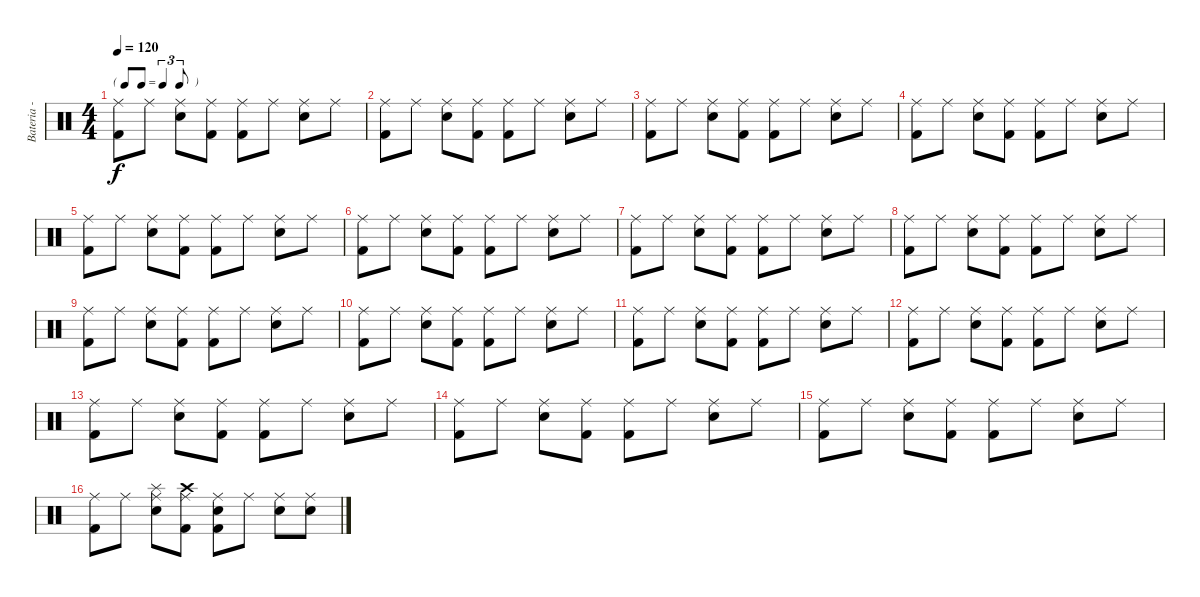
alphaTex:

\track ("Bateria - Cris Layton" "Bateria - ") {instrument percussion}
\staff {score}
\articulation defaults
\ts (4 4)
\tf triplet8th
\tempo 120
\clef neutral
\ks c
("Ride (middle)" "Kick (hit) 2").8{dy f} "Ride (middle)".8 ("Ride (middle)" "Electric Snare (hit)").8 ("Ride (middle)" "Kick (hit) 2").8 ("Ride (middle)" "Kick (hit) 2").8 "Ride (middle)".8 ("Ride (middle)" "Electric Snare (hit)").8 "Ride (middle)".8 |
("Ride (middle)" "Kick (hit) 2").8 "Ride (middle)".8 ("Ride (middle)" "Electric Snare (hit)").8 ("Ride (middle)" "Kick (hit) 2").8 ("Ride (middle)" "Kick (hit) 2").8 "Ride (middle)".8 ("Ride (middle)" "Electric Snare (hit)").8 "Ride (middle)".8 |
("Ride (middle)" "Kick (hit) 2").8 "Ride (middle)".8 ("Ride (middle)" "Electric Snare (hit)").8 ("Ride (middle)" "Kick (hit) 2").8 ("Ride (middle)" "Kick (hit) 2").8 "Ride (middle)".8 ("Ride (middle)" "Electric Snare (hit)").8 "Ride (middle)".8 |
("Ride (middle)" "Kick (hit) 2").8 "Ride (middle)".8 ("Ride (middle)" "Electric Snare (hit)").8 ("Ride (middle)" "Kick (hit) 2").8 ("Ride (middle)" "Kick (hit) 2").8 "Ride (middle)".8 ("Ride (middle)" "Electric Snare (hit)").8 "Ride (middle)".8 |
("Ride (middle)" "Kick (hit) 2").8 "Ride (middle)".8 ("Ride (middle)" "Electric Snare (hit)").8 ("Ride (middle)" "Kick (hit) 2").8 ("Ride (middle)" "Kick (hit) 2").8 "Ride (middle)".8 ("Ride (middle)" "Electric Snare (hit)").8 "Ride (middle)".8 |
("Ride (middle)" "Kick (hit) 2").8 "Ride (middle)".8 ("Ride (middle)" "Electric Snare (hit)").8 ("Ride (middle)" "Kick (hit) 2").8 ("Ride (middle)" "Kick (hit) 2").8 "Ride (middle)".8 ("Ride (middle)" "Electric Snare (hit)").8 "Ride (middle)".8 |
("Ride (middle)" "Kick (hit) 2").8 "Ride (middle)".8 ("Ride (middle)" "Electric Snare (hit)").8 ("Ride (middle)" "Kick (hit) 2").8 ("Ride (middle)" "Kick (hit) 2").8 "Ride (middle)".8 ("Ride (middle)" "Electric Snare (hit)").8 "Ride (middle)".8 |
("Ride (middle)" "Kick (hit) 2").8 "Ride (middle)".8 ("Ride (middle)" "Electric Snare (hit)").8 ("Ride (middle)" "Kick (hit) 2").8 ("Ride (middle)" "Kick (hit) 2").8 "Ride (middle)".8 ("Ride (middle)" "Electric Snare (hit)").8 "Ride (middle)".8 |
("Ride (middle)" "Kick (hit) 2").8 "Ride (middle)".8 ("Ride (middle)" "Electric Snare (hit)").8 ("Ride (middle)" "Kick (hit) 2").8 ("Ride (middle)" "Kick (hit) 2").8 "Ride (middle)".8 ("Ride (middle)" "Electric Snare (hit)").8 "Ride (middle)".8 |
("Ride (middle)" "Kick (hit) 2").8 "Ride (middle)".8 ("Ride (middle)" "Electric Snare (hit)").8 ("Ride (middle)" "Kick (hit) 2").8 ("Ride (middle)" "Kick (hit) 2").8 "Ride (middle)".8 ("Ride (middle)" "Electric Snare (hit)").8 "Ride (middle)".8 |
("Ride (middle)" "Kick (hit) 2").8 "Ride (middle)".8 ("Ride (middle)" "Electric Snare (hit)").8 ("Ride (middle)" "Kick (hit) 2").8 ("Ride (middle)" "Kick (hit) 2").8 "Ride (middle)".8 ("Ride (middle)" "Electric Snare (hit)").8 "Ride (middle)".8 |
("Ride (middle)" "Kick (hit) 2").8 "Ride (middle)".8 ("Ride (middle)" "Electric Snare (hit)").8 ("Ride (middle)" "Kick (hit) 2").8 ("Ride (middle)" "Kick (hit) 2").8 "Ride (middle)".8 ("Ride (middle)" "Electric Snare (hit)").8 "Ride (middle)".8 |
("Ride (middle)" "Kick (hit) 2").8 "Ride (middle)".8 ("Ride (middle)" "Electric Snare (hit)").8 ("Ride (middle)" "Kick (hit) 2").8 ("Ride (middle)" "Kick (hit) 2").8 "Ride (middle)".8 ("Ride (middle)" "Electric Snare (hit)").8 "Ride (middle)".8 |
("Ride (middle)" "Kick (hit) 2").8 "Ride (middle)".8 ("Ride (middle)" "Electric Snare (hit)").8 ("Ride (middle)" "Kick (hit) 2").8 ("Ride (middle)" "Kick (hit) 2").8 "Ride (middle)".8 ("Ride (middle)" "Electric Snare (hit)").8 "Ride (middle)".8 |
("Ride (middle)" "Kick (hit) 2").8 "Ride (middle)".8 ("Ride (middle)" "Electric Snare (hit)").8 ("Ride (middle)" "Kick (hit) 2").8 ("Ride (middle)" "Kick (hit) 2").8 "Ride (middle)".8 ("Ride (middle)" "Electric Snare (hit)").8 "Ride (middle)".8 |
("Ride (middle)" "Kick (hit) 2").8 "Ride (middle)".8 ("Ride (middle)" "Electric Snare (hit)" "Splash (hit)").8 ("Ride (middle)" "Kick (hit) 2" "Crash high (hit)").8 ("Ride (middle)" "Kick (hit) 2" "Electric Snare (hit)").8 "Ride (middle)".8 ("Ride (middle)" "Electric Snare (hit)").8 ("Ride (middle)" "Electric Snare (hit)").8
